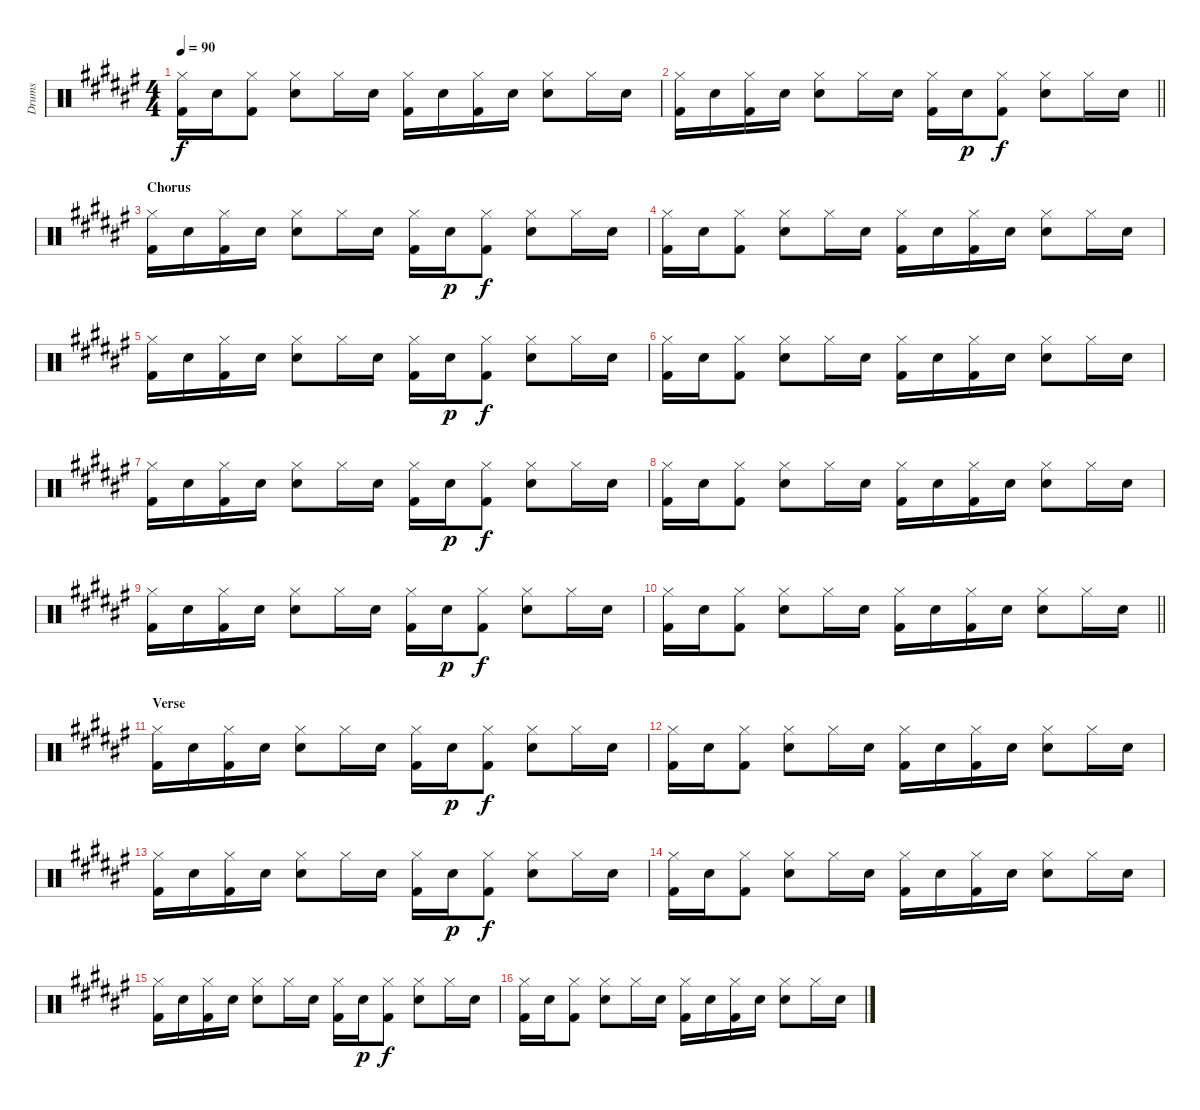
\track ("Drums" "Drums") {instrument percussion}
\staff {score}
\articulation defaults
\ts (4 4)
\tempo 90
\clef neutral
\ks f#
("Hi-Hat (closed)" "Kick (hit) 2").16{dy f} "Snare (hit) 2".16 ("Hi-Hat (closed)" "Kick (hit) 2").8 ("Hi-Hat (closed)" "Snare (hit) 2").8 "Hi-Hat (closed)".16 "Snare (hit) 2".16 ("Hi-Hat (closed)" "Kick (hit) 2").16 "Snare (hit) 2".16 ("Hi-Hat (closed)" "Kick (hit) 2").16 "Snare (hit) 2".16 ("Hi-Hat (closed)" "Snare (hit) 2").8 "Hi-Hat (closed)".16 "Snare (hit) 2".16 |
\barLineRight lightlight
("Hi-Hat (closed)" "Kick (hit) 2").16 "Snare (hit) 2".16 ("Hi-Hat (closed)" "Kick (hit) 2").16 "Snare (hit) 2".16 ("Hi-Hat (closed)" "Snare (hit) 2").8 "Hi-Hat (closed)".16 "Snare (hit) 2".16 ("Hi-Hat (closed)" "Kick (hit) 2").16 "Snare (hit) 2".16{dy p} ("Hi-Hat (closed)" "Kick (hit) 2").8{dy f} ("Hi-Hat (closed)" "Snare (hit) 2").8 "Hi-Hat (closed)".16 "Snare (hit) 2".16 |
\section ("" "Chorus")
("Hi-Hat (closed)" "Kick (hit) 2").16 "Snare (hit) 2".16 ("Hi-Hat (closed)" "Kick (hit) 2").16 "Snare (hit) 2".16 ("Hi-Hat (closed)" "Snare (hit) 2").8 "Hi-Hat (closed)".16 "Snare (hit) 2".16 ("Hi-Hat (closed)" "Kick (hit) 2").16 "Snare (hit) 2".16{dy p} ("Hi-Hat (closed)" "Kick (hit) 2").8{dy f} ("Hi-Hat (closed)" "Snare (hit) 2").8 "Hi-Hat (closed)".16 "Snare (hit) 2".16 |
("Hi-Hat (closed)" "Kick (hit) 2").16 "Snare (hit) 2".16 ("Hi-Hat (closed)" "Kick (hit) 2").8 ("Hi-Hat (closed)" "Snare (hit) 2").8 "Hi-Hat (closed)".16 "Snare (hit) 2".16 ("Hi-Hat (closed)" "Kick (hit) 2").16 "Snare (hit) 2".16 ("Hi-Hat (closed)" "Kick (hit) 2").16 "Snare (hit) 2".16 ("Hi-Hat (closed)" "Snare (hit) 2").8 "Hi-Hat (closed)".16 "Snare (hit) 2".16 |
("Hi-Hat (closed)" "Kick (hit) 2").16 "Snare (hit) 2".16 ("Hi-Hat (closed)" "Kick (hit) 2").16 "Snare (hit) 2".16 ("Hi-Hat (closed)" "Snare (hit) 2").8 "Hi-Hat (closed)".16 "Snare (hit) 2".16 ("Hi-Hat (closed)" "Kick (hit) 2").16 "Snare (hit) 2".16{dy p} ("Hi-Hat (closed)" "Kick (hit) 2").8{dy f} ("Hi-Hat (closed)" "Snare (hit) 2").8 "Hi-Hat (closed)".16 "Snare (hit) 2".16 |
("Hi-Hat (closed)" "Kick (hit) 2").16 "Snare (hit) 2".16 ("Hi-Hat (closed)" "Kick (hit) 2").8 ("Hi-Hat (closed)" "Snare (hit) 2").8 "Hi-Hat (closed)".16 "Snare (hit) 2".16 ("Hi-Hat (closed)" "Kick (hit) 2").16 "Snare (hit) 2".16 ("Hi-Hat (closed)" "Kick (hit) 2").16 "Snare (hit) 2".16 ("Hi-Hat (closed)" "Snare (hit) 2").8 "Hi-Hat (closed)".16 "Snare (hit) 2".16 |
("Hi-Hat (closed)" "Kick (hit) 2").16 "Snare (hit) 2".16 ("Hi-Hat (closed)" "Kick (hit) 2").16 "Snare (hit) 2".16 ("Hi-Hat (closed)" "Snare (hit) 2").8 "Hi-Hat (closed)".16 "Snare (hit) 2".16 ("Hi-Hat (closed)" "Kick (hit) 2").16 "Snare (hit) 2".16{dy p} ("Hi-Hat (closed)" "Kick (hit) 2").8{dy f} ("Hi-Hat (closed)" "Snare (hit) 2").8 "Hi-Hat (closed)".16 "Snare (hit) 2".16 |
("Hi-Hat (closed)" "Kick (hit) 2").16 "Snare (hit) 2".16 ("Hi-Hat (closed)" "Kick (hit) 2").8 ("Hi-Hat (closed)" "Snare (hit) 2").8 "Hi-Hat (closed)".16 "Snare (hit) 2".16 ("Hi-Hat (closed)" "Kick (hit) 2").16 "Snare (hit) 2".16 ("Hi-Hat (closed)" "Kick (hit) 2").16 "Snare (hit) 2".16 ("Hi-Hat (closed)" "Snare (hit) 2").8 "Hi-Hat (closed)".16 "Snare (hit) 2".16 |
("Hi-Hat (closed)" "Kick (hit) 2").16 "Snare (hit) 2".16 ("Hi-Hat (closed)" "Kick (hit) 2").16 "Snare (hit) 2".16 ("Hi-Hat (closed)" "Snare (hit) 2").8 "Hi-Hat (closed)".16 "Snare (hit) 2".16 ("Hi-Hat (closed)" "Kick (hit) 2").16 "Snare (hit) 2".16{dy p} ("Hi-Hat (closed)" "Kick (hit) 2").8{dy f} ("Hi-Hat (closed)" "Snare (hit) 2").8 "Hi-Hat (closed)".16 "Snare (hit) 2".16 |
\barLineRight lightlight
("Hi-Hat (closed)" "Kick (hit) 2").16 "Snare (hit) 2".16 ("Hi-Hat (closed)" "Kick (hit) 2").8 ("Hi-Hat (closed)" "Snare (hit) 2").8 "Hi-Hat (closed)".16 "Snare (hit) 2".16 ("Hi-Hat (closed)" "Kick (hit) 2").16 "Snare (hit) 2".16 ("Hi-Hat (closed)" "Kick (hit) 2").16 "Snare (hit) 2".16 ("Hi-Hat (closed)" "Snare (hit) 2").8 "Hi-Hat (closed)".16 "Snare (hit) 2".16 |
\section ("" "Verse")
("Hi-Hat (closed)" "Kick (hit) 2").16 "Snare (hit) 2".16 ("Hi-Hat (closed)" "Kick (hit) 2").16 "Snare (hit) 2".16 ("Hi-Hat (closed)" "Snare (hit) 2").8 "Hi-Hat (closed)".16 "Snare (hit) 2".16 ("Hi-Hat (closed)" "Kick (hit) 2").16 "Snare (hit) 2".16{dy p} ("Hi-Hat (closed)" "Kick (hit) 2").8{dy f} ("Hi-Hat (closed)" "Snare (hit) 2").8 "Hi-Hat (closed)".16 "Snare (hit) 2".16 |
("Hi-Hat (closed)" "Kick (hit) 2").16 "Snare (hit) 2".16 ("Hi-Hat (closed)" "Kick (hit) 2").8 ("Hi-Hat (closed)" "Snare (hit) 2").8 "Hi-Hat (closed)".16 "Snare (hit) 2".16 ("Hi-Hat (closed)" "Kick (hit) 2").16 "Snare (hit) 2".16 ("Hi-Hat (closed)" "Kick (hit) 2").16 "Snare (hit) 2".16 ("Hi-Hat (closed)" "Snare (hit) 2").8 "Hi-Hat (closed)".16 "Snare (hit) 2".16 |
("Hi-Hat (closed)" "Kick (hit) 2").16 "Snare (hit) 2".16 ("Hi-Hat (closed)" "Kick (hit) 2").16 "Snare (hit) 2".16 ("Hi-Hat (closed)" "Snare (hit) 2").8 "Hi-Hat (closed)".16 "Snare (hit) 2".16 ("Hi-Hat (closed)" "Kick (hit) 2").16 "Snare (hit) 2".16{dy p} ("Hi-Hat (closed)" "Kick (hit) 2").8{dy f} ("Hi-Hat (closed)" "Snare (hit) 2").8 "Hi-Hat (closed)".16 "Snare (hit) 2".16 |
("Hi-Hat (closed)" "Kick (hit) 2").16 "Snare (hit) 2".16 ("Hi-Hat (closed)" "Kick (hit) 2").8 ("Hi-Hat (closed)" "Snare (hit) 2").8 "Hi-Hat (closed)".16 "Snare (hit) 2".16 ("Hi-Hat (closed)" "Kick (hit) 2").16 "Snare (hit) 2".16 ("Hi-Hat (closed)" "Kick (hit) 2").16 "Snare (hit) 2".16 ("Hi-Hat (closed)" "Snare (hit) 2").8 "Hi-Hat (closed)".16 "Snare (hit) 2".16 |
("Hi-Hat (closed)" "Kick (hit) 2").16 "Snare (hit) 2".16 ("Hi-Hat (closed)" "Kick (hit) 2").16 "Snare (hit) 2".16 ("Hi-Hat (closed)" "Snare (hit) 2").8 "Hi-Hat (closed)".16 "Snare (hit) 2".16 ("Hi-Hat (closed)" "Kick (hit) 2").16 "Snare (hit) 2".16{dy p} ("Hi-Hat (closed)" "Kick (hit) 2").8{dy f} ("Hi-Hat (closed)" "Snare (hit) 2").8 "Hi-Hat (closed)".16 "Snare (hit) 2".16 |
("Hi-Hat (closed)" "Kick (hit) 2").16 "Snare (hit) 2".16 ("Hi-Hat (closed)" "Kick (hit) 2").8 ("Hi-Hat (closed)" "Snare (hit) 2").8 "Hi-Hat (closed)".16 "Snare (hit) 2".16 ("Hi-Hat (closed)" "Kick (hit) 2").16 "Snare (hit) 2".16 ("Hi-Hat (closed)" "Kick (hit) 2").16 "Snare (hit) 2".16 ("Hi-Hat (closed)" "Snare (hit) 2").8 "Hi-Hat (closed)".16 "Snare (hit) 2".16
